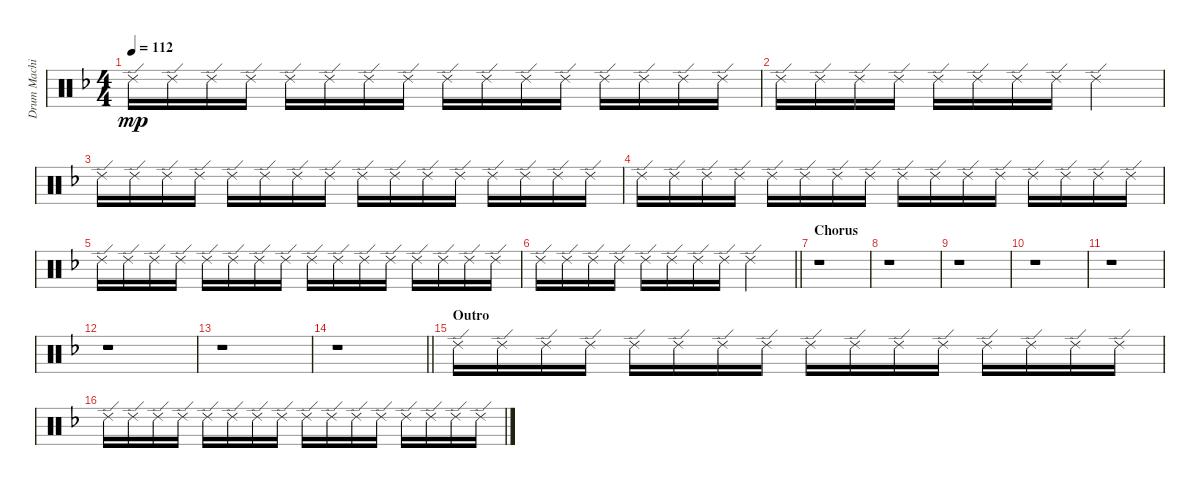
\track ("Drum Machine" "Drum Machi") {instrument percussion}
\staff {score}
\articulation defaults
\ts (4 4)
\tempo 112
\clef neutral
\ks f "Ride (edge) 2".16{dy mp} "Ride (edge) 2".16 "Ride (edge) 2".16 "Ride (edge) 2".16 "Ride (edge) 2".16 "Ride (edge) 2".16 "Ride (edge) 2".16 "Ride (edge) 2".16 "Ride (edge) 2".16 "Ride (edge) 2".16 "Ride (edge) 2".16 "Ride (edge) 2".16 "Ride (edge) 2".16 "Ride (edge) 2".16 "Ride (edge) 2".16 "Ride (edge) 2".16
|
"Ride (edge) 2".16 "Ride (edge) 2".16 "Ride (edge) 2".16 "Ride (edge) 2".16 "Ride (edge) 2".16 "Ride (edge) 2".16 "Ride (edge) 2".16 "Ride (edge) 2".16 "Ride (edge) 2".2 |
"Ride (edge) 2".16 "Ride (edge) 2".16 "Ride (edge) 2".16 "Ride (edge) 2".16 "Ride (edge) 2".16 "Ride (edge) 2".16 "Ride (edge) 2".16 "Ride (edge) 2".16 "Ride (edge) 2".16 "Ride (edge) 2".16 "Ride (edge) 2".16 "Ride (edge) 2".16 "Ride (edge) 2".16 "Ride (edge) 2".16 "Ride (edge) 2".16 "Ride (edge) 2".16 |
"Ride (edge) 2".16 "Ride (edge) 2".16 "Ride (edge) 2".16 "Ride (edge) 2".16 "Ride (edge) 2".16 "Ride (edge) 2".16 "Ride (edge) 2".16 "Ride (edge) 2".16 "Ride (edge) 2".16 "Ride (edge) 2".16 "Ride (edge) 2".16 "Ride (edge) 2".16 "Ride (edge) 2".16 "Ride (edge) 2".16 "Ride (edge) 2".16 "Ride (edge) 2".16 |
"Ride (edge) 2".16 "Ride (edge) 2".16 "Ride (edge) 2".16 "Ride (edge) 2".16 "Ride (edge) 2".16 "Ride (edge) 2".16 "Ride (edge) 2".16 "Ride (edge) 2".16 "Ride (edge) 2".16 "Ride (edge) 2".16 "Ride (edge) 2".16 "Ride (edge) 2".16 "Ride (edge) 2".16 "Ride (edge) 2".16 "Ride (edge) 2".16 "Ride (edge) 2".16 |
\barLineRight lightlight "Ride (edge) 2".16 "Ride (edge) 2".16 "Ride (edge) 2".16 "Ride (edge) 2".16 "Ride (edge) 2".16 "Ride (edge) 2".16 "Ride (edge) 2".16 "Ride (edge) 2".16 "Ride (edge) 2".2
|
\section ("" "Chorus")
r.1 |
r.1 |
r.1 |
r.1 |
r.1 |
r.1 |
r.1 |
\barLineRight lightlight
r.1 |
\section ("" "Outro")
"Ride (edge) 2".16 "Ride (edge) 2".16 "Ride (edge) 2".16 "Ride (edge) 2".16 "Ride (edge) 2".16 "Ride (edge) 2".16 "Ride (edge) 2".16 "Ride (edge) 2".16 "Ride (edge) 2".16 "Ride (edge) 2".16 "Ride (edge) 2".16 "Ride (edge) 2".16 "Ride (edge) 2".16 "Ride (edge) 2".16 "Ride (edge) 2".16 "Ride (edge) 2".16 |
"Ride (edge) 2".16 "Ride (edge) 2".16 "Ride (edge) 2".16 "Ride (edge) 2".16 "Ride (edge) 2".16 "Ride (edge) 2".16 "Ride (edge) 2".16 "Ride (edge) 2".16 "Ride (edge) 2".16 "Ride (edge) 2".16 "Ride (edge) 2".16 "Ride (edge) 2".16 "Ride (edge) 2".16 "Ride (edge) 2".16 "Ride (edge) 2".16 "Ride (edge) 2".16
